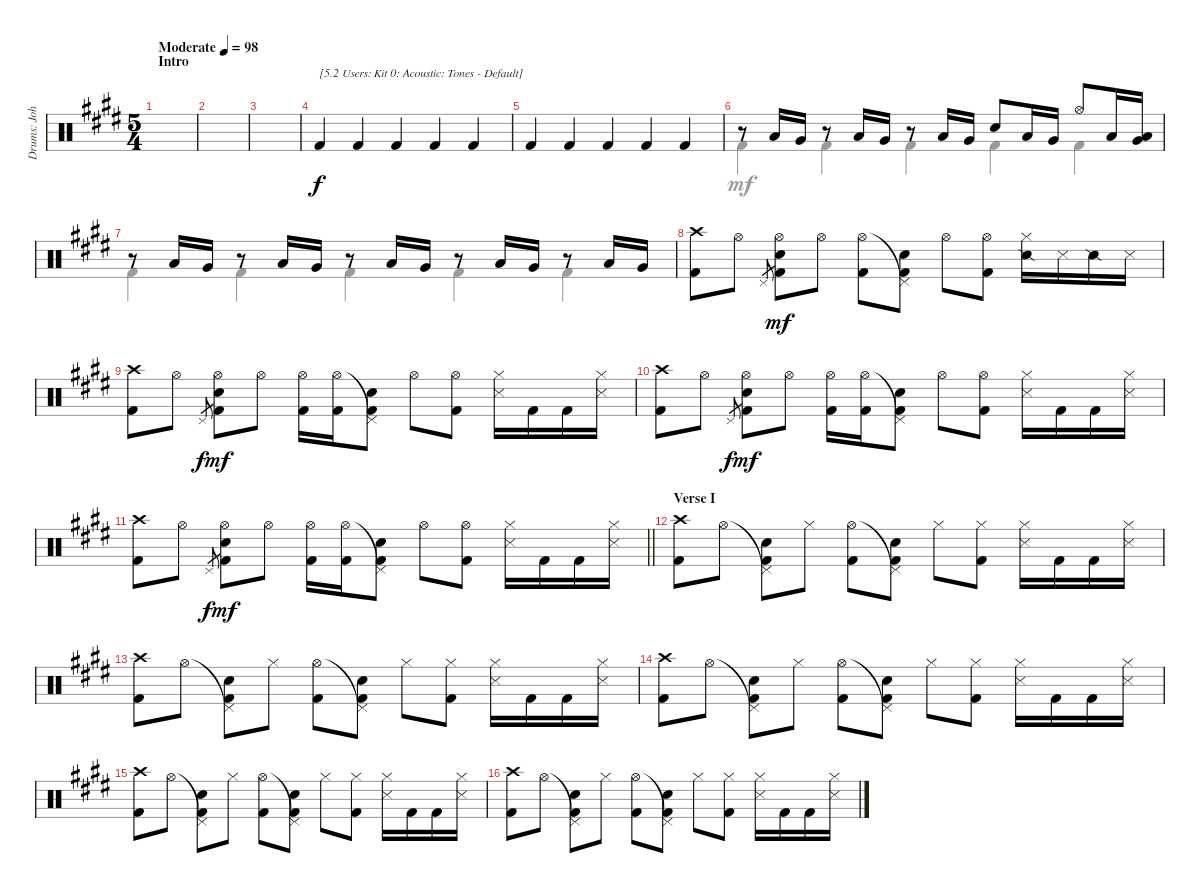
\track ("Drums: John" "Drums: Joh") {instrument percussion}
\staff {score}
\articulation defaults
\voice
\ts (5 4)
\section ("" "Intro")
\tempo (98 "Moderate")
\clef neutral
\ks e
|
|
|
"Kick (hit) 2".4{txt "[5.2 Users: Kit 0: Acoustic: Tones - Default]"} "Kick (hit) 2".4 "Kick (hit) 2".4 "Kick (hit) 2".4 "Kick (hit) 2".4 |
"Kick (hit) 2".4 "Kick (hit) 2".4 "Kick (hit) 2".4 "Kick (hit) 2".4 "Kick (hit) 2".4 |
r.8 "Low Tom (hit)".16 "Very Low Tom (hit)".16 r.8 "Low Tom (hit)".16 "Very Low Tom (hit)".16 r.8 "Low Tom (hit)".16 "Very Low Tom (hit)".16 "Electric Snare (hit)".8 "Low Tom (hit)".16 "Very Low Tom (hit)".16 "Hi-Hat (open)".8 "Low Tom (hit)".16 ("Low Tom (hit)" "Very Low Tom (hit)").16 |
r.8 "Low Tom (hit)".16 "Very Low Tom (hit)".16 r.8 "Low Tom (hit)".16 "Very Low Tom (hit)".16 r.8 "Low Tom (hit)".16 "Very Low Tom (hit)".16 r.8 "Low Tom (hit)".16 "Very Low Tom (hit)".16 r.8 "Low Tom (hit)".16 "Very Low Tom (hit)".16 |
("Crash high (hit)" "Kick (hit) 2").8 "Hi-Hat (open)".8 "Pedal Hi-Hat (hit)".8{gr dy f} ("Hi-Hat (open)" "Snare (hit) 2" "Kick (hit) 2").8{dy mf} "Hi-Hat (open)".8 ("Hi-Hat (open)" "Kick (hit) 2").8 ("Pedal Hi-Hat (hit)"{t} "Snare (hit) 2" "Kick (hit) 2").8 "Hi-Hat (open)".8 ("Hi-Hat (open)" "Kick (hit) 2").8 ("Hi-Hat (closed)" "Snare (side stick) 2").16 "Snare (side stick) 3".16 "Snare (side stick) 2".16 "Snare (side stick) 3".16 |
("Crash high (hit)" "Kick (hit) 2").8 "Hi-Hat (open)".8 "Pedal Hi-Hat (hit)".8{gr dy f} ("Hi-Hat (open)" "Snare (hit) 2" "Kick (hit) 2").8{dy mf} "Hi-Hat (open)".8 ("Hi-Hat (open)" "Kick (hit) 2").16 ("Hi-Hat (open)" "Kick (hit) 2").16 ("Pedal Hi-Hat (hit)"{t} "Snare (hit) 2" "Kick (hit) 2").8 "Hi-Hat (open)".8 ("Hi-Hat (open)" "Kick (hit) 2").8 ("Hi-Hat (closed)" "Snare (side stick) 3").16 "Kick (hit) 2".16 "Kick (hit) 2".16 ("Hi-Hat (closed)" "Snare (side stick) 3").16 |
("Crash high (hit)" "Kick (hit) 2").8 "Hi-Hat (open)".8 "Pedal Hi-Hat (hit)".8{gr dy f} ("Hi-Hat (open)" "Snare (hit) 2" "Kick (hit) 2").8{dy mf} "Hi-Hat (open)".8 ("Hi-Hat (open)" "Kick (hit) 2").16 ("Hi-Hat (open)" "Kick (hit) 2").16 ("Pedal Hi-Hat (hit)"{t} "Snare (hit) 2" "Kick (hit) 2").8 "Hi-Hat (open)".8 ("Hi-Hat (open)" "Kick (hit) 2").8 ("Hi-Hat (closed)" "Snare (side stick) 3").16 "Kick (hit) 2".16 "Kick (hit) 2".16 ("Hi-Hat (closed)" "Snare (side stick) 3").16 |
\barLineRight lightlight
("Crash high (hit)" "Kick (hit) 2").8 "Hi-Hat (open)".8 "Pedal Hi-Hat (hit)".8{gr dy f} ("Hi-Hat (open)" "Snare (hit) 2" "Kick (hit) 2").8{dy mf} "Hi-Hat (open)".8 ("Hi-Hat (open)" "Kick (hit) 2").16 ("Hi-Hat (open)" "Kick (hit) 2").16 ("Pedal Hi-Hat (hit)"{t} "Snare (hit) 2" "Kick (hit) 2").8 "Hi-Hat (open)".8 ("Hi-Hat (open)" "Kick (hit) 2").8 ("Hi-Hat (closed)" "Snare (side stick) 3").16 "Kick (hit) 2".16 "Kick (hit) 2".16 ("Hi-Hat (closed)" "Snare (side stick) 3").16 |
\section ("" "Verse I")
("Crash high (hit)" "Kick (hit) 2").8 "Hi-Hat (open)".8 ("Pedal Hi-Hat (hit)"{t} "Snare (hit) 2" "Kick (hit) 2").8 "Hi-Hat (closed)".8 ("Hi-Hat (open)" "Kick (hit) 2").8 ("Pedal Hi-Hat (hit)"{t} "Snare (hit) 2" "Kick (hit) 2").8 "Hi-Hat (closed)".8 ("Hi-Hat (closed)" "Kick (hit) 2").8 ("Hi-Hat (closed)" "Snare (side stick) 3").16 "Kick (hit) 2".16 "Kick (hit) 2".16 ("Hi-Hat (closed)" "Snare (side stick) 3").16 |
("Crash high (hit)" "Kick (hit) 2").8 "Hi-Hat (open)".8 ("Pedal Hi-Hat (hit)"{t} "Snare (hit) 2" "Kick (hit) 2").8 "Hi-Hat (closed)".8 ("Hi-Hat (open)" "Kick (hit) 2").8 ("Pedal Hi-Hat (hit)"{t} "Snare (hit) 2" "Kick (hit) 2").8 "Hi-Hat (closed)".8 ("Hi-Hat (closed)" "Kick (hit) 2").8 ("Hi-Hat (closed)" "Snare (side stick) 3").16 "Kick (hit) 2".16 "Kick (hit) 2".16 ("Hi-Hat (closed)" "Snare (side stick) 3").16 |
("Crash high (hit)" "Kick (hit) 2").8 "Hi-Hat (open)".8 ("Pedal Hi-Hat (hit)"{t} "Snare (hit) 2" "Kick (hit) 2").8 "Hi-Hat (closed)".8 ("Hi-Hat (open)" "Kick (hit) 2").8 ("Pedal Hi-Hat (hit)"{t} "Snare (hit) 2" "Kick (hit) 2").8 "Hi-Hat (closed)".8 ("Hi-Hat (closed)" "Kick (hit) 2").8 ("Hi-Hat (closed)" "Snare (side stick) 3").16 "Kick (hit) 2".16 "Kick (hit) 2".16 ("Hi-Hat (closed)" "Snare (side stick) 3").16 |
("Crash high (hit)" "Kick (hit) 2").8 "Hi-Hat (open)".8 ("Pedal Hi-Hat (hit)"{t} "Snare (hit) 2" "Kick (hit) 2").8 "Hi-Hat (closed)".8 ("Hi-Hat (open)" "Kick (hit) 2").8 ("Pedal Hi-Hat (hit)"{t} "Snare (hit) 2" "Kick (hit) 2").8 "Hi-Hat (closed)".8 ("Hi-Hat (closed)" "Kick (hit) 2").8 ("Hi-Hat (closed)" "Snare (side stick) 3").16 "Kick (hit) 2".16 "Kick (hit) 2".16 ("Hi-Hat (closed)" "Snare (side stick) 3").16 |
("Crash high (hit)" "Kick (hit) 2").8 "Hi-Hat (open)".8 ("Pedal Hi-Hat (hit)"{t} "Snare (hit) 2" "Kick (hit) 2").8 "Hi-Hat (closed)".8 ("Hi-Hat (open)" "Kick (hit) 2").8 ("Pedal Hi-Hat (hit)"{t} "Snare (hit) 2" "Kick (hit) 2").8 "Hi-Hat (closed)".8 ("Hi-Hat (closed)" "Kick (hit) 2").8 ("Hi-Hat (closed)" "Snare (side stick) 3").16 "Kick (hit) 2".16 "Kick (hit) 2".16 ("Hi-Hat (closed)" "Snare (side stick) 3").16
\voice
\clef neutral
\ottava regular
\simile none
\ks e
|
|
|
|
|
"Kick (hit) 2".4 "Kick (hit) 2".4 "Kick (hit) 2".4 "Kick (hit) 2".4 "Kick (hit) 2".4 |
"Kick (hit) 2".4 "Kick (hit) 2".4 "Kick (hit) 2".4 "Kick (hit) 2".4 "Kick (hit) 2".4 |
|
|
|
\barLineRight lightlight
|
|
|
|
|
